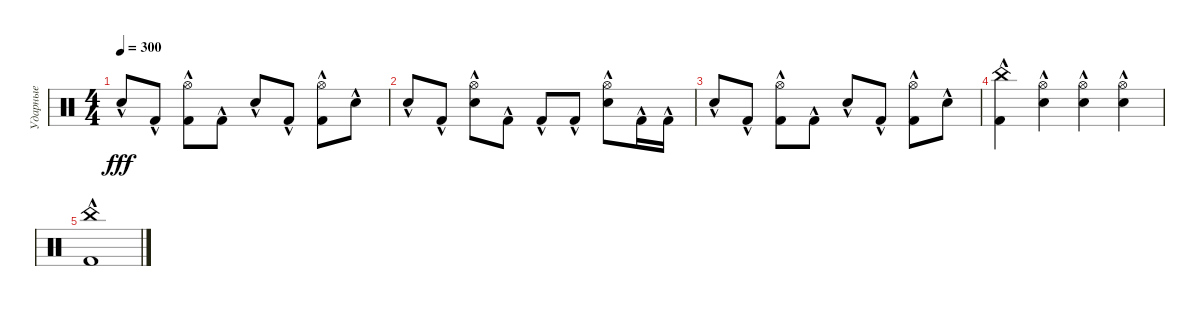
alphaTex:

\track ("Ударные" "Ударные") {instrument percussion}
\staff
\articulation defaults
\ts (4 4)
\tempo 300
\clef neutral
\ks c "Snare (hit) 2"{hac}.8{dy fff} "Kick (hit) 2"{hac}.8
("Hi-Hat (open)" "Kick (hit) 2"{hac}).8 "Kick (hit) 2"{hac}.8 "Snare (hit) 2"{hac}.8 "Kick (hit) 2"{hac}.8 ("Hi-Hat (open)" "Kick (hit) 2"{hac}).8 "Snare (hit) 2"{hac}.8 |
"Snare (hit) 2"{hac}.8 "Kick (hit) 2"{hac}.8 ("Hi-Hat (open)" "Snare (hit) 2"{hac}).8 "Kick (hit) 2"{hac}.8 "Kick (hit) 2"{hac}.8 "Kick (hit) 2"{hac}.8 ("Hi-Hat (open)" "Snare (hit) 2"{hac}).8 "Kick (hit) 2"{hac}.16 "Kick (hit) 2"{hac}.16 |
"Snare (hit) 2"{hac}.8 "Kick (hit) 2"{hac}.8 ("Hi-Hat (open)" "Kick (hit) 2"{hac}).8 "Kick (hit) 2"{hac}.8 "Snare (hit) 2"{hac}.8 "Kick (hit) 2"{hac}.8 ("Hi-Hat (open)" "Kick (hit) 2"{hac}).8 "Snare (hit) 2"{hac}.8 |
("China (hit)" "Kick (hit) 2"{hac}).4 ("Hi-Hat (open)" "Snare (hit) 2"{hac}).4 ("Hi-Hat (open)" "Snare (hit) 2"{hac}).4 ("Hi-Hat (open)" "Snare (hit) 2"{hac}).4 |
("China (hit)" "Kick (hit) 2"{hac}).1
